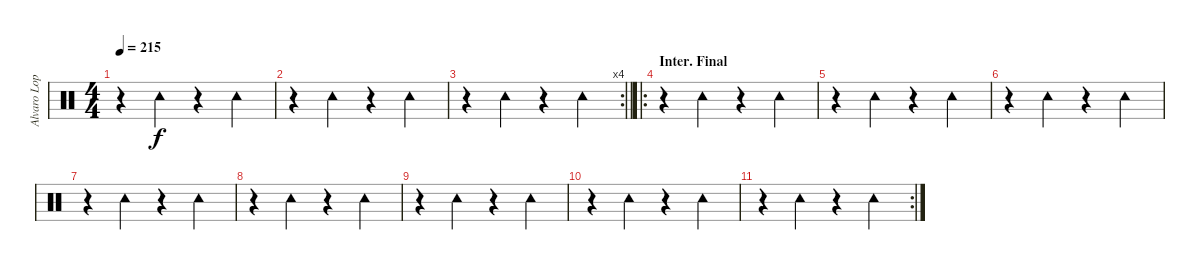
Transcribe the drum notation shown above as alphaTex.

\track ("Alvaro Lopez" "Alvaro Lop") {instrument percussion}
\staff {score}
\articulation defaults
\ts (4 4)
\tempo 215
\clef neutral
\ks c
r.4{dy f} "Tambourine (hit)".4 r.4 "Tambourine (hit)".4 |
r.4 "Tambourine (hit)".4 r.4 "Tambourine (hit)".4 |
\rc 4
\barLineRight lightlight
r.4 "Tambourine (hit)".4 r.4 "Tambourine (hit)".4 |
\ro
\section ("" "Inter. Final")
r.4 "Tambourine (hit)".4 r.4 "Tambourine (hit)".4 |
r.4 "Tambourine (hit)".4 r.4 "Tambourine (hit)".4 |
r.4 "Tambourine (hit)".4 r.4 "Tambourine (hit)".4 |
r.4 "Tambourine (hit)".4 r.4 "Tambourine (hit)".4 |
r.4 "Tambourine (hit)".4 r.4 "Tambourine (hit)".4 |
r.4 "Tambourine (hit)".4 r.4 "Tambourine (hit)".4 |
r.4 "Tambourine (hit)".4 r.4 "Tambourine (hit)".4 |
\rc 2
r.4 "Tambourine (hit)".4 r.4 "Tambourine (hit)".4
